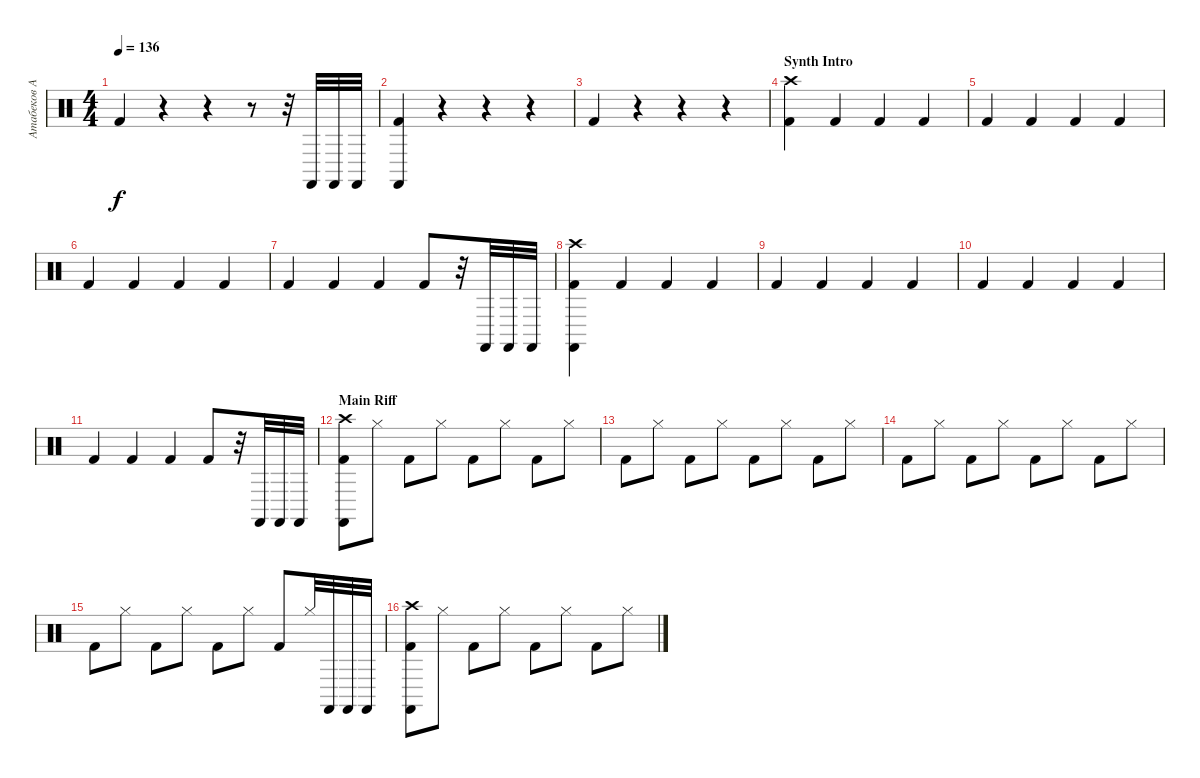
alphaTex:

\track ("Атабеков Андрей - Барабаны" "Атабеков А") {instrument percussion}
\staff {score}
\articulation defaults
\ts (4 4)
\tempo 136
\clef neutral
\ks c "Kick (hit) 2".4{dy f}
r.4 r.4 r.8 r.32 "Castanets (hit)".32 "Castanets (hit)".32 "Castanets (hit)".32 |
("Kick (hit) 2" "Castanets (hit)").4 r.4 r.4 r.4 |
"Kick (hit) 2".4 r.4 r.4 r.4 |
\section ("" "Synth Intro")
("Kick (hit) 2" "Crash high (hit)").4 "Kick (hit) 2".4 "Kick (hit) 2".4 "Kick (hit) 2".4 |
"Kick (hit) 2".4 "Kick (hit) 2".4 "Kick (hit) 2".4 "Kick (hit) 2".4 |
"Kick (hit) 2".4 "Kick (hit) 2".4 "Kick (hit) 2".4 "Kick (hit) 2".4 |
"Kick (hit) 2".4 "Kick (hit) 2".4 "Kick (hit) 2".4 "Kick (hit) 2".8 r.32 "Castanets (hit)".32 "Castanets (hit)".32 "Castanets (hit)".32 |
("Kick (hit) 2" "Castanets (hit)" "Crash high (hit)").4 "Kick (hit) 2".4 "Kick (hit) 2".4 "Kick (hit) 2".4 |
"Kick (hit) 2".4 "Kick (hit) 2".4 "Kick (hit) 2".4 "Kick (hit) 2".4 |
"Kick (hit) 2".4 "Kick (hit) 2".4 "Kick (hit) 2".4 "Kick (hit) 2".4 |
"Kick (hit) 2".4 "Kick (hit) 2".4 "Kick (hit) 2".4 "Kick (hit) 2".8 r.32 "Castanets (hit)".32 "Castanets (hit)".32 "Castanets (hit)".32 |
\section ("" "Main Riff")
("Kick (hit) 2" "Castanets (hit)" "Crash high (hit)").8 "Hi-Hat (closed)".8 "Kick (hit) 2".8 "Hi-Hat (closed)".8 "Kick (hit) 2".8 "Hi-Hat (closed)".8 "Kick (hit) 2".8 "Hi-Hat (closed)".8 |
"Kick (hit) 2".8 "Hi-Hat (closed)".8 "Kick (hit) 2".8 "Hi-Hat (closed)".8 "Kick (hit) 2".8 "Hi-Hat (closed)".8 "Kick (hit) 2".8 "Hi-Hat (closed)".8 |
"Kick (hit) 2".8 "Hi-Hat (closed)".8 "Kick (hit) 2".8 "Hi-Hat (closed)".8 "Kick (hit) 2".8 "Hi-Hat (closed)".8 "Kick (hit) 2".8 "Hi-Hat (closed)".8 |
"Kick (hit) 2".8 "Hi-Hat (closed)".8 "Kick (hit) 2".8 "Hi-Hat (closed)".8 "Kick (hit) 2".8 "Hi-Hat (closed)".8 "Kick (hit) 2".8 "Hi-Hat (closed)".32 "Castanets (hit)".32 "Castanets (hit)".32 "Castanets (hit)".32 |
("Kick (hit) 2" "Castanets (hit)" "Crash high (hit)").8 "Hi-Hat (closed)".8 "Kick (hit) 2".8 "Hi-Hat (closed)".8 "Kick (hit) 2".8 "Hi-Hat (closed)".8 "Kick (hit) 2".8 "Hi-Hat (closed)".8
